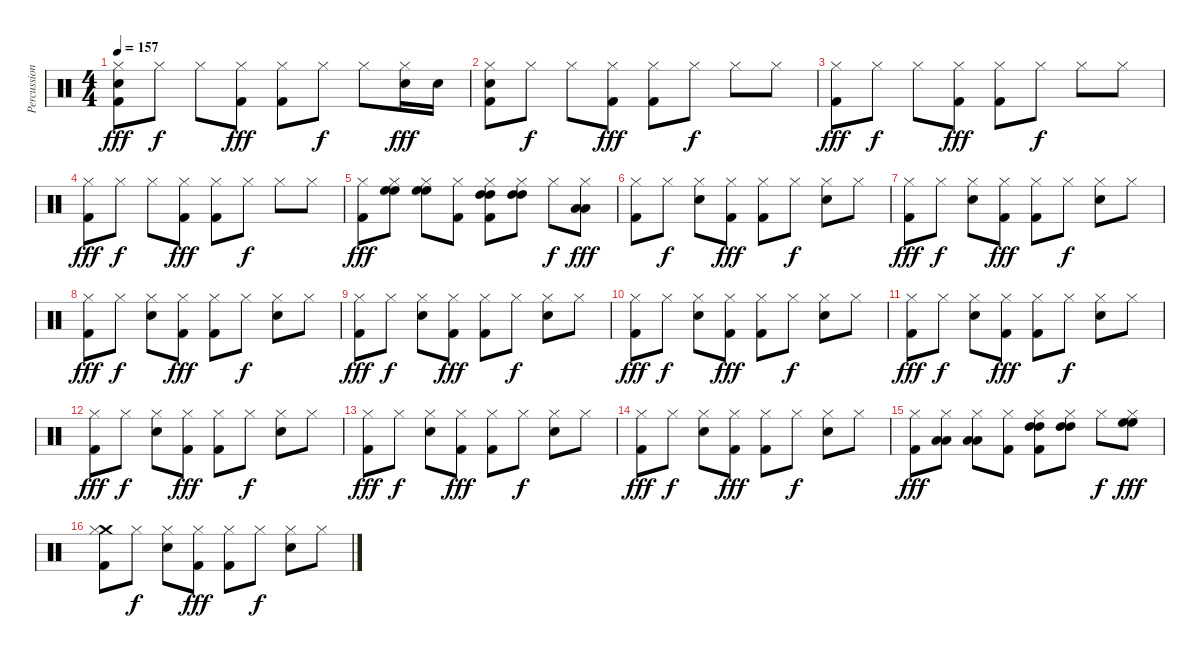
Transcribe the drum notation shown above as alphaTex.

\track ("Percussioni" "Percussion") {instrument percussion}
\staff {score}
\articulation defaults
\ts (4 4)
\tempo 157
\clef neutral
\ks c
("Hi-Hat (closed)" "Snare (hit) 2" "Kick (hit) 2").8{dy fff} "Hi-Hat (closed)".8{dy f} "Hi-Hat (closed)".8 ("Hi-Hat (closed)" "Kick (hit) 2").8{dy fff} ("Hi-Hat (closed)" "Kick (hit) 2").8 "Hi-Hat (closed)".8{dy f} "Hi-Hat (closed)".8 ("Hi-Hat (closed)" "Snare (hit) 2").16{dy fff} "Snare (hit) 2".16 |
("Hi-Hat (closed)" "Snare (hit) 2" "Kick (hit) 2").8 "Hi-Hat (closed)".8{dy f} "Hi-Hat (closed)".8 ("Hi-Hat (closed)" "Kick (hit) 2").8{dy fff} ("Hi-Hat (closed)" "Kick (hit) 2").8 "Hi-Hat (closed)".8{dy f} "Hi-Hat (closed)".8 "Hi-Hat (closed)".8 |
("Hi-Hat (closed)" "Kick (hit) 2").8{dy fff} "Hi-Hat (closed)".8{dy f} "Hi-Hat (closed)".8 ("Hi-Hat (closed)" "Kick (hit) 2").8{dy fff} ("Hi-Hat (closed)" "Kick (hit) 2").8 "Hi-Hat (closed)".8{dy f} "Hi-Hat (closed)".8 "Hi-Hat (closed)".8 |
("Hi-Hat (closed)" "Kick (hit) 2").8{dy fff} "Hi-Hat (closed)".8{dy f} "Hi-Hat (closed)".8 ("Hi-Hat (closed)" "Kick (hit) 2").8{dy fff} ("Hi-Hat (closed)" "Kick (hit) 2").8 "Hi-Hat (closed)".8{dy f} "Hi-Hat (closed)".8 "Hi-Hat (closed)".8 |
("Hi-Hat (closed)" "Kick (hit) 2").8{dy fff} ("High Floor Tom (hit)" "High Floor Tom (hit)" "Hi-Hat (closed)").8 ("High Floor Tom (hit)" "High Floor Tom (hit)" "Hi-Hat (closed)").8 ("Hi-Hat (closed)" "Kick (hit) 2").8 ("High Tom (hit)" "High Tom (hit)" "Hi-Hat (closed)" "Kick (hit) 2").8 ("High Tom (hit)" "High Tom (hit)" "Hi-Hat (closed)").8 "Hi-Hat (closed)".8{dy f} ("Low Tom (hit)" "Low Tom (hit)" "Hi-Hat (closed)").8{dy fff} |
("Hi-Hat (closed)" "Kick (hit) 2").8 "Hi-Hat (closed)".8{dy f} ("Hi-Hat (closed)" "Snare (hit) 2").8 ("Hi-Hat (closed)" "Kick (hit) 2").8{dy fff} ("Hi-Hat (closed)" "Kick (hit) 2").8 "Hi-Hat (closed)".8{dy f} ("Hi-Hat (closed)" "Snare (hit) 2").8 "Hi-Hat (closed)".8 |
("Hi-Hat (closed)" "Kick (hit) 2").8{dy fff} "Hi-Hat (closed)".8{dy f} ("Hi-Hat (closed)" "Snare (hit) 2").8 ("Hi-Hat (closed)" "Kick (hit) 2").8{dy fff} ("Hi-Hat (closed)" "Kick (hit) 2").8 "Hi-Hat (closed)".8{dy f} ("Hi-Hat (closed)" "Snare (hit) 2").8 "Hi-Hat (closed)".8 |
("Hi-Hat (closed)" "Kick (hit) 2").8{dy fff} "Hi-Hat (closed)".8{dy f} ("Hi-Hat (closed)" "Snare (hit) 2").8 ("Hi-Hat (closed)" "Kick (hit) 2").8{dy fff} ("Hi-Hat (closed)" "Kick (hit) 2").8 "Hi-Hat (closed)".8{dy f} ("Hi-Hat (closed)" "Snare (hit) 2").8 "Hi-Hat (closed)".8 |
("Hi-Hat (closed)" "Kick (hit) 2").8{dy fff} "Hi-Hat (closed)".8{dy f} ("Hi-Hat (closed)" "Snare (hit) 2").8 ("Hi-Hat (closed)" "Kick (hit) 2").8{dy fff} ("Hi-Hat (closed)" "Kick (hit) 2").8 "Hi-Hat (closed)".8{dy f} ("Hi-Hat (closed)" "Snare (hit) 2").8 "Hi-Hat (closed)".8 |
("Hi-Hat (closed)" "Kick (hit) 2").8{dy fff} "Hi-Hat (closed)".8{dy f} ("Hi-Hat (closed)" "Snare (hit) 2").8 ("Hi-Hat (closed)" "Kick (hit) 2").8{dy fff} ("Hi-Hat (closed)" "Kick (hit) 2").8 "Hi-Hat (closed)".8{dy f} ("Hi-Hat (closed)" "Snare (hit) 2").8 "Hi-Hat (closed)".8 |
("Hi-Hat (closed)" "Kick (hit) 2").8{dy fff} "Hi-Hat (closed)".8{dy f} ("Hi-Hat (closed)" "Snare (hit) 2").8 ("Hi-Hat (closed)" "Kick (hit) 2").8{dy fff} ("Hi-Hat (closed)" "Kick (hit) 2").8 "Hi-Hat (closed)".8{dy f} ("Hi-Hat (closed)" "Snare (hit) 2").8 "Hi-Hat (closed)".8 |
("Hi-Hat (closed)" "Kick (hit) 2").8{dy fff} "Hi-Hat (closed)".8{dy f} ("Hi-Hat (closed)" "Snare (hit) 2").8 ("Hi-Hat (closed)" "Kick (hit) 2").8{dy fff} ("Hi-Hat (closed)" "Kick (hit) 2").8 "Hi-Hat (closed)".8{dy f} ("Hi-Hat (closed)" "Snare (hit) 2").8 "Hi-Hat (closed)".8 |
("Hi-Hat (closed)" "Kick (hit) 2").8{dy fff} "Hi-Hat (closed)".8{dy f} ("Hi-Hat (closed)" "Snare (hit) 2").8 ("Hi-Hat (closed)" "Kick (hit) 2").8{dy fff} ("Hi-Hat (closed)" "Kick (hit) 2").8 "Hi-Hat (closed)".8{dy f} ("Hi-Hat (closed)" "Snare (hit) 2").8 "Hi-Hat (closed)".8 |
("Hi-Hat (closed)" "Kick (hit) 2").8{dy fff} "Hi-Hat (closed)".8{dy f} ("Hi-Hat (closed)" "Snare (hit) 2").8 ("Hi-Hat (closed)" "Kick (hit) 2").8{dy fff} ("Hi-Hat (closed)" "Kick (hit) 2").8 "Hi-Hat (closed)".8{dy f} ("Hi-Hat (closed)" "Snare (hit) 2").8 "Hi-Hat (closed)".8 |
("Hi-Hat (closed)" "Kick (hit) 2").8{dy fff} ("Low Tom (hit)" "Low Tom (hit)" "Hi-Hat (closed)").8 ("Low Tom (hit)" "Low Tom (hit)" "Hi-Hat (closed)").8 ("Hi-Hat (closed)" "Kick (hit) 2").8 ("High Tom (hit)" "High Tom (hit)" "Hi-Hat (closed)" "Kick (hit) 2").8 ("High Tom (hit)" "High Tom (hit)" "Hi-Hat (closed)").8 "Hi-Hat (closed)".8{dy f} ("High Floor Tom (hit)" "High Floor Tom (hit)" "Hi-Hat (closed)").8{dy fff} |
("Crash medium (hit)" "Hi-Hat (closed)" "Kick (hit) 2").8 "Hi-Hat (closed)".8{dy f} ("Hi-Hat (closed)" "Snare (hit) 2").8 ("Hi-Hat (closed)" "Kick (hit) 2").8{dy fff} ("Hi-Hat (closed)" "Kick (hit) 2").8 "Hi-Hat (closed)".8{dy f} ("Hi-Hat (closed)" "Snare (hit) 2").8 "Hi-Hat (closed)".8
